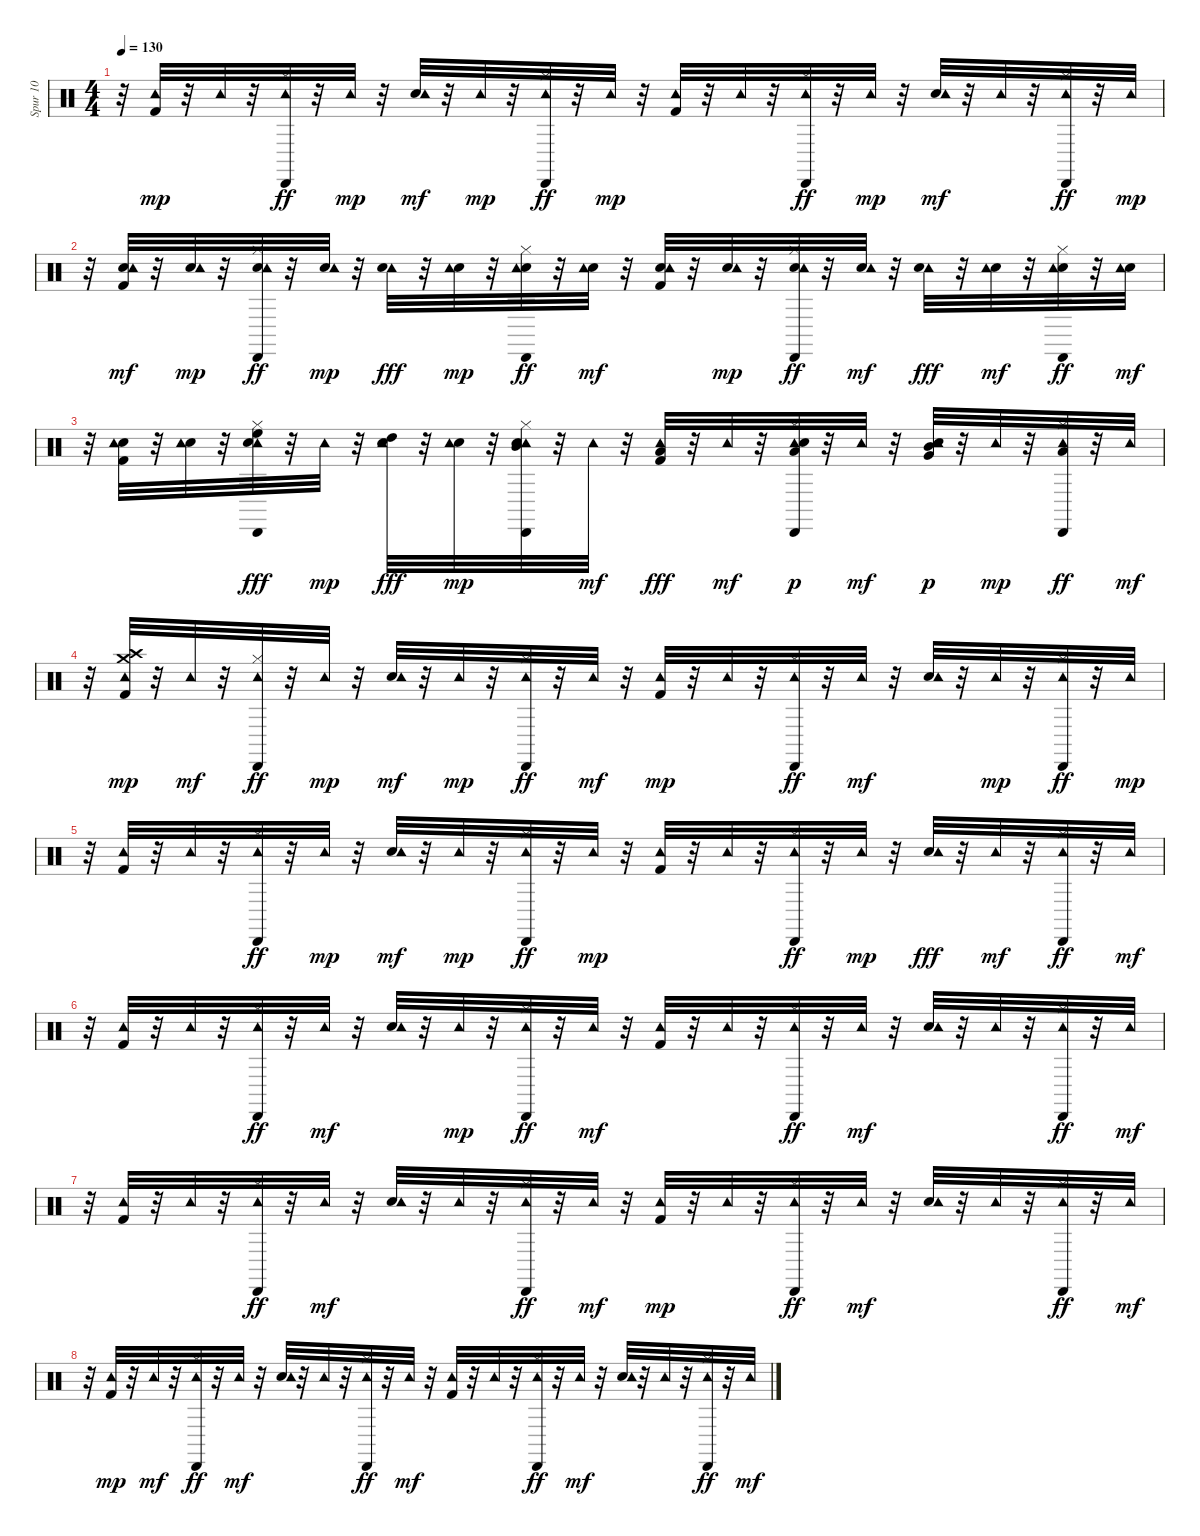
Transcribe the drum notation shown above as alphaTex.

\track ("Spur 10" "Spur 10") {instrument percussion}
\staff {score}
\articulation defaults
\ts (4 4)
\tempo 130
\clef neutral
\ks c
r.32{dy mp} ("Kick (hit) 2" "Tambourine (hit)").32 r.32 "Tambourine (hit)".32 r.32 ("Hi-Hat (closed)" "Tambourine (hit)" "Cabasa (hit)").32{dy ff} r.32 "Tambourine (hit)".32{dy mp} r.32 ("Electric Snare (hit)" "Tambourine (hit)").32{dy mf} r.32 "Tambourine (hit)".32{dy mp} r.32 ("Hi-Hat (closed)" "Tambourine (hit)" "Cabasa (hit)").32{dy ff} r.32 "Tambourine (hit)".32{dy mp} r.32 ("Kick (hit) 2" "Tambourine (hit)").32 r.32 "Tambourine (hit)".32 r.32 ("Hi-Hat (closed)" "Tambourine (hit)" "Cabasa (hit)").32{dy ff} r.32 "Tambourine (hit)".32{dy mp} r.32 ("Electric Snare (hit)" "Tambourine (hit)").32{dy mf} r.32 "Tambourine (hit)".32 r.32 ("Hi-Hat (closed)" "Tambourine (hit)" "Cabasa (hit)").32{dy ff} r.32 "Tambourine (hit)".32{dy mp} |
r.32 ("Kick (hit) 2" "Electric Snare (hit)" "Tambourine (hit)").32{dy mf} r.32 ("Electric Snare (hit)" "Tambourine (hit)").32{dy mp} r.32 ("Hi-Hat (closed)" "Electric Snare (hit)" "Tambourine (hit)" "Cabasa (hit)").32{dy ff} r.32 ("Electric Snare (hit)" "Tambourine (hit)").32{dy mp} r.32 ("Tambourine (hit)" "Electric Snare (hit)").32{dy fff} r.32 ("Electric Snare (hit)" "Tambourine (hit)").32{dy mp} r.32 ("Hi-Hat (closed)" "Electric Snare (hit)" "Tambourine (hit)" "Cabasa (hit)").32{dy ff} r.32 ("Electric Snare (hit)" "Tambourine (hit)").32{dy mf} r.32 ("Kick (hit) 2" "Electric Snare (hit)" "Tambourine (hit)").32 r.32 ("Electric Snare (hit)" "Tambourine (hit)").32{dy mp} r.32 ("Hi-Hat (closed)" "Electric Snare (hit)" "Tambourine (hit)" "Cabasa (hit)").32{dy ff} r.32 ("Electric Snare (hit)" "Tambourine (hit)").32{dy mf} r.32 ("Tambourine (hit)" "Electric Snare (hit)").32{dy fff} r.32 ("Electric Snare (hit)" "Tambourine (hit)").32{dy mf} r.32 ("Hi-Hat (closed)" "Electric Snare (hit)" "Tambourine (hit)" "Cabasa (hit)").32{dy ff} r.32 ("Electric Snare (hit)" "Tambourine (hit)").32{dy mf} |
r.32 ("Kick (hit) 2" "Electric Snare (hit)" "Tambourine (hit)").32 r.32 ("Electric Snare (hit)" "Tambourine (hit)").32 r.32 ("Hi-Hat (closed)" "Tambourine (hit)" "Electric Snare (hit)" "Cabasa (hit)" "High Floor Tom (hit)").32{dy fff} r.32 "Tambourine (hit)".32{dy mp} r.32 ("Tambourine (hit)" "Electric Snare (hit)" "High Tom (hit)").32{dy fff} r.32 ("Electric Snare (hit)" "Tambourine (hit)").32{dy mp} r.32 ("Hi-Hat (closed)" "Tambourine (hit)" "Electric Snare (hit)" "Cabasa (hit)" "Mid Tom (hit)").32 r.32 "Tambourine (hit)".32{dy mf} r.32 ("Kick (hit) 2" "Tambourine (hit)" "Low Tom (hit)").32{dy fff} r.32 "Tambourine (hit)".32{dy mf} r.32 ("Hi-Hat (closed)" "Tambourine (hit)" "Electric Snare (hit)" "Cabasa (hit)" "Low Tom (hit)").32{dy p} r.32 "Tambourine (hit)".32{dy mf} r.32 ("Electric Snare (hit)" "Tambourine (hit)" "Very Low Tom (hit)" "Mid Tom (hit)").32{dy p} r.32 "Tambourine (hit)".32{dy mp} r.32 ("Hi-Hat (closed)" "Tambourine (hit)" "Cabasa (hit)" "Low Floor Tom (hit)").32{dy ff} r.32 "Tambourine (hit)".32{dy mf} |
r.32 ("Kick (hit) 2" "Tambourine (hit)" "Crash high (hit)" "Crash medium (hit)").32{dy mp} r.32 "Tambourine (hit)".32{dy mf} r.32 ("Hi-Hat (closed)" "Tambourine (hit)" "Cabasa (hit)").32{dy ff} r.32 "Tambourine (hit)".32{dy mp} r.32 ("Electric Snare (hit)" "Tambourine (hit)").32{dy mf} r.32 "Tambourine (hit)".32{dy mp} r.32 ("Hi-Hat (closed)" "Tambourine (hit)" "Cabasa (hit)").32{dy ff} r.32 "Tambourine (hit)".32{dy mf} r.32 ("Kick (hit) 2" "Tambourine (hit)").32{dy mp} r.32 "Tambourine (hit)".32 r.32 ("Hi-Hat (closed)" "Tambourine (hit)" "Cabasa (hit)").32{dy ff} r.32 "Tambourine (hit)".32{dy mf} r.32 ("Electric Snare (hit)" "Tambourine (hit)").32 r.32 "Tambourine (hit)".32{dy mp} r.32 ("Hi-Hat (closed)" "Tambourine (hit)" "Cabasa (hit)").32{dy ff} r.32 "Tambourine (hit)".32{dy mp} |
r.32 ("Kick (hit) 2" "Tambourine (hit)").32 r.32 "Tambourine (hit)".32 r.32 ("Hi-Hat (closed)" "Tambourine (hit)" "Cabasa (hit)").32{dy ff} r.32 "Tambourine (hit)".32{dy mp} r.32 ("Electric Snare (hit)" "Tambourine (hit)").32{dy mf} r.32 "Tambourine (hit)".32{dy mp} r.32 ("Hi-Hat (closed)" "Tambourine (hit)" "Cabasa (hit)").32{dy ff} r.32 "Tambourine (hit)".32{dy mp} r.32 ("Kick (hit) 2" "Tambourine (hit)").32 r.32 "Tambourine (hit)".32 r.32 ("Hi-Hat (closed)" "Tambourine (hit)" "Cabasa (hit)").32{dy ff} r.32 "Tambourine (hit)".32{dy mp} r.32 ("Electric Snare (hit)" "Tambourine (hit)").32{dy fff} r.32 "Tambourine (hit)".32{dy mf} r.32 ("Hi-Hat (closed)" "Tambourine (hit)" "Cabasa (hit)").32{dy ff} r.32 "Tambourine (hit)".32{dy mf} |
r.32 ("Kick (hit) 2" "Tambourine (hit)").32 r.32 "Tambourine (hit)".32 r.32 ("Hi-Hat (closed)" "Tambourine (hit)" "Cabasa (hit)").32{dy ff} r.32 "Tambourine (hit)".32{dy mf} r.32 ("Electric Snare (hit)" "Tambourine (hit)").32 r.32 "Tambourine (hit)".32{dy mp} r.32 ("Hi-Hat (closed)" "Tambourine (hit)" "Cabasa (hit)").32{dy ff} r.32 "Tambourine (hit)".32{dy mf} r.32 ("Kick (hit) 2" "Tambourine (hit)").32 r.32 "Tambourine (hit)".32 r.32 ("Hi-Hat (closed)" "Tambourine (hit)" "Cabasa (hit)").32{dy ff} r.32 "Tambourine (hit)".32{dy mf} r.32 ("Electric Snare (hit)" "Tambourine (hit)").32 r.32 "Tambourine (hit)".32 r.32 ("Hi-Hat (closed)" "Tambourine (hit)" "Cabasa (hit)").32{dy ff} r.32 "Tambourine (hit)".32{dy mf} |
r.32 ("Kick (hit) 2" "Tambourine (hit)").32 r.32 "Tambourine (hit)".32 r.32 ("Hi-Hat (closed)" "Tambourine (hit)" "Cabasa (hit)").32{dy ff} r.32 "Tambourine (hit)".32{dy mf} r.32 ("Electric Snare (hit)" "Tambourine (hit)").32 r.32 "Tambourine (hit)".32 r.32 ("Hi-Hat (closed)" "Tambourine (hit)" "Cabasa (hit)").32{dy ff} r.32 "Tambourine (hit)".32{dy mf} r.32 ("Kick (hit) 2" "Tambourine (hit)").32{dy mp} r.32 "Tambourine (hit)".32 r.32 ("Hi-Hat (closed)" "Tambourine (hit)" "Cabasa (hit)").32{dy ff} r.32 "Tambourine (hit)".32{dy mf} r.32 ("Electric Snare (hit)" "Tambourine (hit)").32 r.32 "Tambourine (hit)".32 r.32 ("Hi-Hat (closed)" "Tambourine (hit)" "Cabasa (hit)").32{dy ff} r.32 "Tambourine (hit)".32{dy mf} |
r.32 ("Kick (hit) 2" "Tambourine (hit)").32{dy mp} r.32 "Tambourine (hit)".32{dy mf} r.32 ("Hi-Hat (closed)" "Tambourine (hit)" "Cabasa (hit)").32{dy ff} r.32 "Tambourine (hit)".32{dy mf} r.32 ("Electric Snare (hit)" "Tambourine (hit)").32 r.32 "Tambourine (hit)".32 r.32 ("Hi-Hat (closed)" "Tambourine (hit)" "Cabasa (hit)").32{dy ff} r.32 "Tambourine (hit)".32{dy mf} r.32 ("Kick (hit) 2" "Tambourine (hit)").32 r.32 "Tambourine (hit)".32 r.32 ("Hi-Hat (closed)" "Tambourine (hit)" "Cabasa (hit)").32{dy ff} r.32 "Tambourine (hit)".32{dy mf} r.32 ("Electric Snare (hit)" "Tambourine (hit)").32 r.32 "Tambourine (hit)".32 r.32 ("Hi-Hat (closed)" "Tambourine (hit)" "Cabasa (hit)").32{dy ff} r.32 "Tambourine (hit)".32{dy mf}
